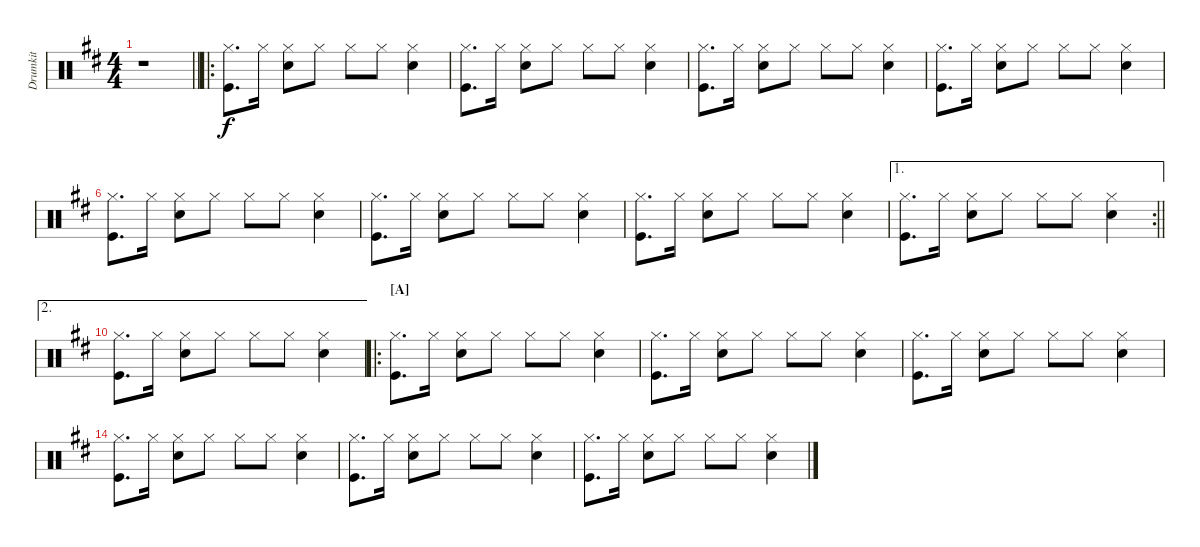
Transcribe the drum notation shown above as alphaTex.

\bracketExtendMode groupsimilarinstruments
\multiTrackTrackNamePolicy hidden
\firstSystemTrackNameMode fullname
\otherSystemsTrackNameMode fullname
\otherSystemsTrackNameOrientation horizontal
\defaultBarNumberDisplay FirstOfSystem
\track ("Drumkit" "Drums") {instrument percussion}
\staff {score}
\articulation defaults
\ts (4 4)
\beaming (8 2 2 2 2)
\tempo (90 hide)
\clef neutral
\barLineRight lightlight
\ks d
r.1{dy f} |
\ro
("Hi-Hat (closed)" "Kick (hit)").8{d} "Hi-Hat (closed)".16 ("Hi-Hat (closed)" "Snare (hit) 2").8 "Hi-Hat (closed)".8 "Hi-Hat (closed)".8 "Hi-Hat (closed)".8 ("Hi-Hat (closed)" "Snare (hit) 2").4 |
("Hi-Hat (closed)" "Kick (hit)").8{d} "Hi-Hat (closed)".16 ("Hi-Hat (closed)" "Snare (hit) 2").8 "Hi-Hat (closed)".8 "Hi-Hat (closed)".8 "Hi-Hat (closed)".8 ("Hi-Hat (closed)" "Snare (hit) 2").4 |
("Hi-Hat (closed)" "Kick (hit)").8{d} "Hi-Hat (closed)".16 ("Hi-Hat (closed)" "Snare (hit) 2").8 "Hi-Hat (closed)".8 "Hi-Hat (closed)".8 "Hi-Hat (closed)".8 ("Hi-Hat (closed)" "Snare (hit) 2").4 |
("Hi-Hat (closed)" "Kick (hit)").8{d} "Hi-Hat (closed)".16 ("Hi-Hat (closed)" "Snare (hit) 2").8 "Hi-Hat (closed)".8 "Hi-Hat (closed)".8 "Hi-Hat (closed)".8 ("Hi-Hat (closed)" "Snare (hit) 2").4 |
("Hi-Hat (closed)" "Kick (hit)").8{d} "Hi-Hat (closed)".16 ("Hi-Hat (closed)" "Snare (hit) 2").8 "Hi-Hat (closed)".8 "Hi-Hat (closed)".8 "Hi-Hat (closed)".8 ("Hi-Hat (closed)" "Snare (hit) 2").4 |
("Hi-Hat (closed)" "Kick (hit)").8{d} "Hi-Hat (closed)".16 ("Hi-Hat (closed)" "Snare (hit) 2").8 "Hi-Hat (closed)".8 "Hi-Hat (closed)".8 "Hi-Hat (closed)".8 ("Hi-Hat (closed)" "Snare (hit) 2").4 |
("Hi-Hat (closed)" "Kick (hit)").8{d} "Hi-Hat (closed)".16 ("Hi-Hat (closed)" "Snare (hit) 2").8 "Hi-Hat (closed)".8 "Hi-Hat (closed)".8 "Hi-Hat (closed)".8 ("Hi-Hat (closed)" "Snare (hit) 2").4 |
\ae 1
\rc 2
\barLineRight lightlight
("Hi-Hat (closed)" "Kick (hit)").8{d} "Hi-Hat (closed)".16 ("Hi-Hat (closed)" "Snare (hit) 2").8 "Hi-Hat (closed)".8 "Hi-Hat (closed)".8 "Hi-Hat (closed)".8 ("Hi-Hat (closed)" "Snare (hit) 2").4 |
\ae 2
("Hi-Hat (closed)" "Kick (hit)").8{d} "Hi-Hat (closed)".16 ("Hi-Hat (closed)" "Snare (hit) 2").8 "Hi-Hat (closed)".8 "Hi-Hat (closed)".8 "Hi-Hat (closed)".8 ("Hi-Hat (closed)" "Snare (hit) 2").4 |
\ro
\section ("A" "")
("Hi-Hat (closed)" "Kick (hit)").8{d} "Hi-Hat (closed)".16 ("Hi-Hat (closed)" "Snare (hit) 2").8 "Hi-Hat (closed)".8 "Hi-Hat (closed)".8 "Hi-Hat (closed)".8 ("Hi-Hat (closed)" "Snare (hit) 2").4 |
("Hi-Hat (closed)" "Kick (hit)").8{d} "Hi-Hat (closed)".16 ("Hi-Hat (closed)" "Snare (hit) 2").8 "Hi-Hat (closed)".8 "Hi-Hat (closed)".8 "Hi-Hat (closed)".8 ("Hi-Hat (closed)" "Snare (hit) 2").4 |
("Hi-Hat (closed)" "Kick (hit)").8{d} "Hi-Hat (closed)".16 ("Hi-Hat (closed)" "Snare (hit) 2").8 "Hi-Hat (closed)".8 "Hi-Hat (closed)".8 "Hi-Hat (closed)".8 ("Hi-Hat (closed)" "Snare (hit) 2").4 |
("Hi-Hat (closed)" "Kick (hit)").8{d} "Hi-Hat (closed)".16 ("Hi-Hat (closed)" "Snare (hit) 2").8 "Hi-Hat (closed)".8 "Hi-Hat (closed)".8 "Hi-Hat (closed)".8 ("Hi-Hat (closed)" "Snare (hit) 2").4 |
("Hi-Hat (closed)" "Kick (hit)").8{d} "Hi-Hat (closed)".16 ("Hi-Hat (closed)" "Snare (hit) 2").8 "Hi-Hat (closed)".8 "Hi-Hat (closed)".8 "Hi-Hat (closed)".8 ("Hi-Hat (closed)" "Snare (hit) 2").4 |
("Hi-Hat (closed)" "Kick (hit)").8{d} "Hi-Hat (closed)".16 ("Hi-Hat (closed)" "Snare (hit) 2").8 "Hi-Hat (closed)".8 "Hi-Hat (closed)".8 "Hi-Hat (closed)".8 ("Hi-Hat (closed)" "Snare (hit) 2").4
